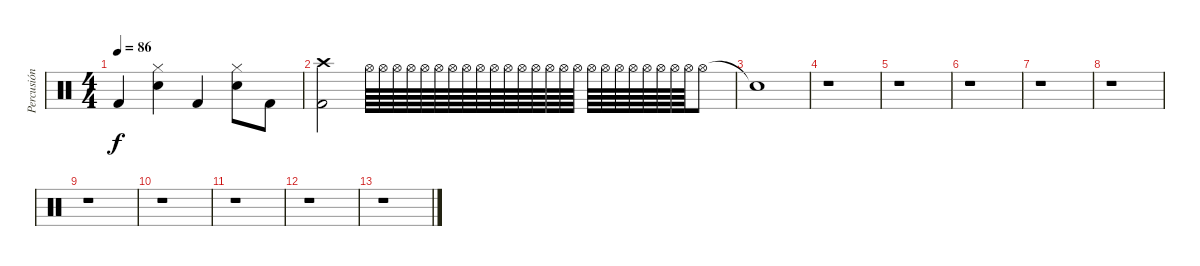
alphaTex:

\track ("Percusión" "Percusión") {instrument percussion}
\staff {score}
\articulation defaults
\ts (4 4)
\tempo 86
\clef neutral
\ks c "Kick (hit) 2".4{dy f}
("Hi-Hat (closed)" "Electric Snare (hit)").4 "Kick (hit) 2".4 ("Hi-Hat (closed)" "Electric Snare (hit)").8 "Kick (hit) 2".8 |
("Crash high (hit)" "Kick (hit) 2").2 "Hi-Hat (open)".64 "Hi-Hat (open)".64 "Hi-Hat (open)".64 "Hi-Hat (open)".64 "Hi-Hat (open)".64 "Hi-Hat (open)".64 "Hi-Hat (open)".64 "Hi-Hat (open)".64 "Hi-Hat (open)".64 "Hi-Hat (open)".64 "Hi-Hat (open)".64 "Hi-Hat (open)".64 "Hi-Hat (open)".64 "Hi-Hat (open)".64 "Hi-Hat (open)".64 "Hi-Hat (open)".64 "Hi-Hat (open)".64 "Hi-Hat (open)".64 "Hi-Hat (open)".64 "Hi-Hat (open)".64 "Hi-Hat (open)".64 "Hi-Hat (open)".64 "Hi-Hat (open)".64 "Hi-Hat (open)".64 "Hi-Hat (open)".8 |
"Snare (hit)"{t}.1 |
r.1 |
r.1 |
r.1 |
r.1 |
r.1 |
r.1 |
r.1 |
r.1 |
r.1 |
r.1
